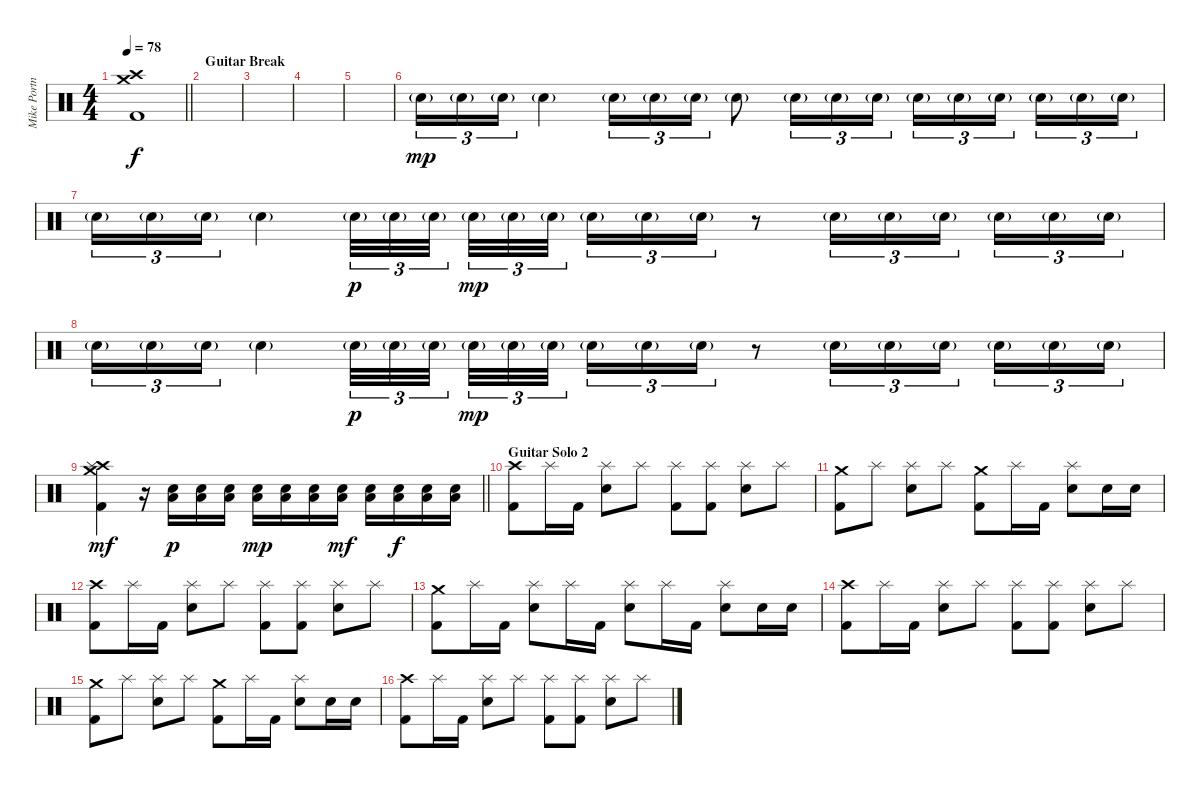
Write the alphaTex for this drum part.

\track ("Mike Portnoy" "Mike Portn") {instrument percussion}
\staff {score}
\articulation defaults
\ts (4 4)
\tempo 78
\clef neutral
\barLineRight lightlight
\ks c
("Crash high (hit)" "Crash medium (hit)" "Kick (hit) 2").1{dy f} |
\section ("" "Guitar Break")
|
|
|
|
"Snare (hit) 2"{g}.16{tu (3 2) dy mp} "Snare (hit) 2"{g}.16{tu (3 2)} "Snare (hit) 2"{g}.16{tu (3 2)} "Snare (hit) 2"{g}.4 "Snare (hit) 2"{g}.16{tu (3 2)} "Snare (hit) 2"{g}.16{tu (3 2)} "Snare (hit) 2"{g}.16{tu (3 2)} "Snare (hit) 2"{g}.8 "Snare (hit) 2"{g}.16{tu (3 2)} "Snare (hit) 2"{g}.16{tu (3 2)} "Snare (hit) 2"{g}.16{tu (3 2)} "Snare (hit) 2"{g}.16{tu (3 2)} "Snare (hit) 2"{g}.16{tu (3 2)} "Snare (hit) 2"{g}.16{tu (3 2) beam splitsecondary} "Snare (hit) 2"{g}.16{tu (3 2)} "Snare (hit) 2"{g}.16{tu (3 2)} "Snare (hit) 2"{g}.16{tu (3 2)} |
"Snare (hit) 2"{g}.16{tu (3 2)} "Snare (hit) 2"{g}.16{tu (3 2)} "Snare (hit) 2"{g}.16{tu (3 2)} "Snare (hit) 2"{g}.4 "Snare (hit) 2"{g}.32{tu (3 2) dy p} "Snare (hit) 2"{g}.32{tu (3 2)} "Snare (hit) 2"{g}.32{tu (3 2) beam splitsecondary} "Snare (hit) 2"{g}.32{tu (3 2) dy mp} "Snare (hit) 2"{g}.32{tu (3 2)} "Snare (hit) 2"{g}.32{tu (3 2)} "Snare (hit) 2"{g}.16{tu (3 2)} "Snare (hit) 2"{g}.16{tu (3 2)} "Snare (hit) 2"{g}.16{tu (3 2)} r.8 "Snare (hit) 2"{g}.16{tu (3 2)} "Snare (hit) 2"{g}.16{tu (3 2)} "Snare (hit) 2"{g}.16{tu (3 2) beam splitsecondary} "Snare (hit) 2"{g}.16{tu (3 2)} "Snare (hit) 2"{g}.16{tu (3 2)} "Snare (hit) 2"{g}.16{tu (3 2)} |
"Snare (hit) 2"{g}.16{tu (3 2)} "Snare (hit) 2"{g}.16{tu (3 2)} "Snare (hit) 2"{g}.16{tu (3 2)} "Snare (hit) 2"{g}.4 "Snare (hit) 2"{g}.32{tu (3 2) dy p} "Snare (hit) 2"{g}.32{tu (3 2)} "Snare (hit) 2"{g}.32{tu (3 2) beam splitsecondary} "Snare (hit) 2"{g}.32{tu (3 2) dy mp} "Snare (hit) 2"{g}.32{tu (3 2)} "Snare (hit) 2"{g}.32{tu (3 2)} "Snare (hit) 2"{g}.16{tu (3 2)} "Snare (hit) 2"{g}.16{tu (3 2)} "Snare (hit) 2"{g}.16{tu (3 2)} r.8 "Snare (hit) 2"{g}.16{tu (3 2)} "Snare (hit) 2"{g}.16{tu (3 2)} "Snare (hit) 2"{g}.16{tu (3 2) beam splitsecondary} "Snare (hit) 2"{g}.16{tu (3 2)} "Snare (hit) 2"{g}.16{tu (3 2)} "Snare (hit) 2"{g}.16{tu (3 2)} |
\barLineRight lightlight
("Crash high (hit)" "Crash medium (hit)" "Splash (hit)" "Kick (hit) 2").4{dy mf} r.16 ("Electric Snare (hit)" "Low Floor Tom (hit)").16{dy p} ("Electric Snare (hit)" "Low Floor Tom (hit)").16 ("Electric Snare (hit)" "Low Floor Tom (hit)").16 ("Electric Snare (hit)" "Low Floor Tom (hit)").16{dy mp} ("Electric Snare (hit)" "Low Floor Tom (hit)").16 ("Electric Snare (hit)" "Low Floor Tom (hit)").16 ("Electric Snare (hit)" "Low Floor Tom (hit)").16{dy mf} ("Electric Snare (hit)" "Low Floor Tom (hit)").16 ("Electric Snare (hit)" "Low Floor Tom (hit)").16{dy f} ("Electric Snare (hit)" "Low Floor Tom (hit)").16 ("Electric Snare (hit)" "Low Floor Tom (hit)").16 |
\section ("" "Guitar Solo 2")
("Crash high (hit)" "Kick (hit) 2").8 "Splash (hit)".16 "Kick (hit) 2".16 ("Splash (hit)" "Electric Snare (hit)").8 "Splash (hit)".8 ("Splash (hit)" "Kick (hit) 2").8 ("Splash (hit)" "Kick (hit) 2").8 ("Splash (hit)" "Electric Snare (hit)").8 "Splash (hit)".8 |
("Crash medium (hit)" "Kick (hit) 2").8 "Splash (hit)".8 ("Splash (hit)" "Electric Snare (hit)").8 "Splash (hit)".8 ("Crash medium (hit)" "Kick (hit) 2").8 "Splash (hit)".16 "Kick (hit) 2".16 ("Splash (hit)" "Electric Snare (hit)").8 "Electric Snare (hit)".16 "Electric Snare (hit)".16 |
("Crash high (hit)" "Kick (hit) 2").8 "Splash (hit)".16 "Kick (hit) 2".16 ("Splash (hit)" "Electric Snare (hit)").8 "Splash (hit)".8 ("Splash (hit)" "Kick (hit) 2").8 ("Splash (hit)" "Kick (hit) 2").8 ("Splash (hit)" "Electric Snare (hit)").8 "Splash (hit)".8 |
("Crash medium (hit)" "Kick (hit) 2").8 "Splash (hit)".16 "Kick (hit) 2".16 ("Splash (hit)" "Electric Snare (hit)").8 "Splash (hit)".16 "Kick (hit) 2".16 ("Splash (hit)" "Electric Snare (hit)").8 "Splash (hit)".16 "Kick (hit) 2".16 ("Splash (hit)" "Electric Snare (hit)").8 "Electric Snare (hit)".16 "Electric Snare (hit)".16 |
("Crash high (hit)" "Kick (hit) 2").8 "Splash (hit)".16 "Kick (hit) 2".16 ("Splash (hit)" "Electric Snare (hit)").8 "Splash (hit)".8 ("Splash (hit)" "Kick (hit) 2").8 ("Splash (hit)" "Kick (hit) 2").8 ("Splash (hit)" "Electric Snare (hit)").8 "Splash (hit)".8 |
("Crash medium (hit)" "Kick (hit) 2").8 "Splash (hit)".8 ("Splash (hit)" "Electric Snare (hit)").8 "Splash (hit)".8 ("Crash medium (hit)" "Kick (hit) 2").8 "Splash (hit)".16 "Kick (hit) 2".16 ("Splash (hit)" "Electric Snare (hit)").8 "Electric Snare (hit)".16 "Electric Snare (hit)".16 |
("Crash high (hit)" "Kick (hit) 2").8 "Splash (hit)".16 "Kick (hit) 2".16 ("Splash (hit)" "Electric Snare (hit)").8 "Splash (hit)".8 ("Splash (hit)" "Kick (hit) 2").8 ("Splash (hit)" "Kick (hit) 2").8 ("Splash (hit)" "Electric Snare (hit)").8 "Splash (hit)".8
